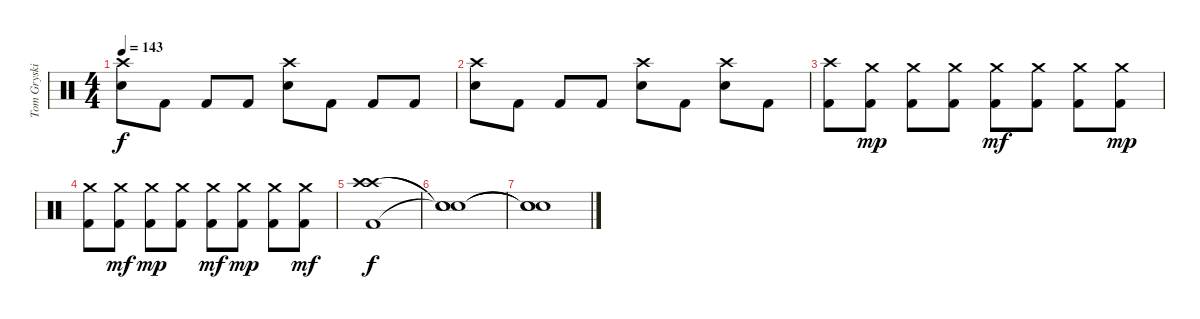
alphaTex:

\track ("Tom Gryskiewicz - Drums" "Tom Gryski") {instrument percussion}
\staff {score}
\articulation defaults
\ts (4 4)
\tempo 143
\clef neutral
\ks c
("Crash high (hit)" "Electric Snare (hit)").8{dy f} "Kick (hit) 2".8 "Kick (hit) 2".8 "Kick (hit) 2".8 ("Crash high (hit)" "Electric Snare (hit)").8 "Kick (hit) 2".8 "Kick (hit) 2".8 "Kick (hit) 2".8 |
("Crash high (hit)" "Electric Snare (hit)").8 "Kick (hit) 2".8 "Kick (hit) 2".8 "Kick (hit) 2".8 ("Crash high (hit)" "Electric Snare (hit)").8 "Kick (hit) 2".8 ("Crash high (hit)" "Electric Snare (hit)").8 "Kick (hit) 2".8 |
("Crash high (hit)" "Kick (hit) 2").8 ("Crash medium (hit)" "Kick (hit) 2").8{dy mp} ("Crash medium (hit)" "Kick (hit) 2").8 ("Crash medium (hit)" "Kick (hit) 2").8 ("Crash medium (hit)" "Kick (hit) 2").8{dy mf} ("Crash medium (hit)" "Kick (hit) 2").8 ("Crash medium (hit)" "Kick (hit) 2").8 ("Crash medium (hit)" "Kick (hit) 2").8{dy mp} |
("Crash medium (hit)" "Kick (hit) 2").8 ("Crash medium (hit)" "Kick (hit) 2").8{dy mf} ("Crash medium (hit)" "Kick (hit) 2").8{dy mp} ("Crash medium (hit)" "Kick (hit) 2").8 ("Crash medium (hit)" "Kick (hit) 2").8{dy mf} ("Crash medium (hit)" "Kick (hit) 2").8{dy mp} ("Crash medium (hit)" "Kick (hit) 2").8 ("Crash medium (hit)" "Kick (hit) 2").8{dy mf} |
("Crash high (hit)" "Crash high (hit)" "Kick (hit) 2").1{dy f} |
("Snare (hit)"{t} "Snare (hit)"{t} "Snare (hit)"{t}).1 |
("Snare (hit)"{t} "Snare (hit)"{t} "Snare (hit)"{t}).1
